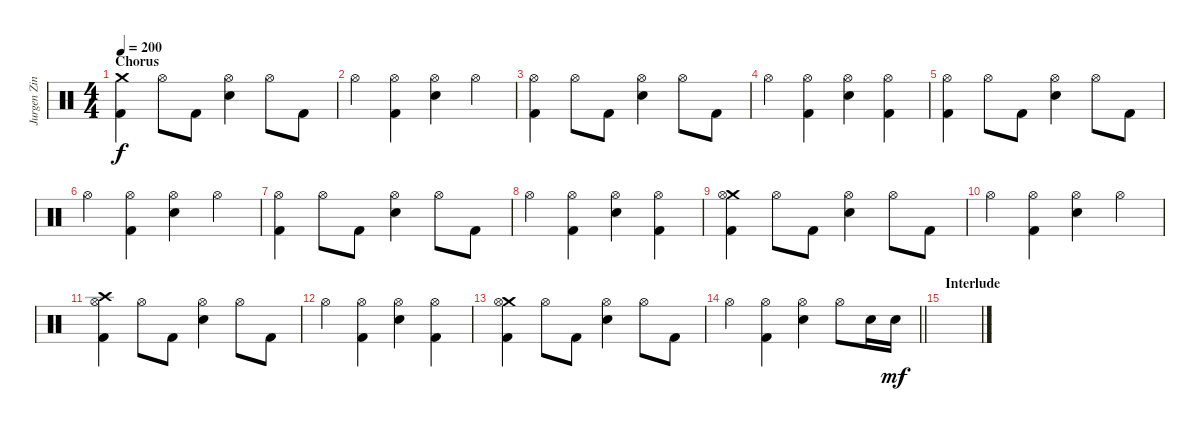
\track ("Jurgen Zink" "Jurgen Zin") {instrument percussion}
\staff {score}
\articulation defaults
\ts (4 4)
\section ("" "Chorus")
\tempo 200
\clef neutral
\ks c
("Crash medium (hit)" "Kick (hit) 2").4{dy f} "Hi-Hat (open)".8 "Kick (hit) 2".8 ("Hi-Hat (open)" "Electric Snare (hit)").4 "Hi-Hat (open)".8 "Kick (hit) 2".8 |
"Hi-Hat (open)".4 ("Hi-Hat (open)" "Kick (hit) 2").4 ("Hi-Hat (open)" "Electric Snare (hit)").4 "Hi-Hat (open)".4 |
("Hi-Hat (open)" "Kick (hit) 2").4 "Hi-Hat (open)".8 "Kick (hit) 2".8 ("Hi-Hat (open)" "Electric Snare (hit)").4 "Hi-Hat (open)".8 "Kick (hit) 2".8 |
"Hi-Hat (open)".4 ("Hi-Hat (open)" "Kick (hit) 2").4 ("Hi-Hat (open)" "Electric Snare (hit)").4 ("Hi-Hat (open)" "Kick (hit) 2").4 |
("Hi-Hat (open)" "Kick (hit) 2").4 "Hi-Hat (open)".8 "Kick (hit) 2".8 ("Hi-Hat (open)" "Electric Snare (hit)").4 "Hi-Hat (open)".8 "Kick (hit) 2".8 |
"Hi-Hat (open)".4 ("Hi-Hat (open)" "Kick (hit) 2").4 ("Hi-Hat (open)" "Electric Snare (hit)").4 "Hi-Hat (open)".4 |
("Hi-Hat (open)" "Kick (hit) 2").4 "Hi-Hat (open)".8 "Kick (hit) 2".8 ("Hi-Hat (open)" "Electric Snare (hit)").4 "Hi-Hat (open)".8 "Kick (hit) 2".8 |
"Hi-Hat (open)".4 ("Hi-Hat (open)" "Kick (hit) 2").4 ("Hi-Hat (open)" "Electric Snare (hit)").4 ("Hi-Hat (open)" "Kick (hit) 2").4 |
("Crash medium (hit)" "Hi-Hat (open)" "Kick (hit) 2").4 "Hi-Hat (open)".8 "Kick (hit) 2".8 ("Hi-Hat (open)" "Electric Snare (hit)").4 "Hi-Hat (open)".8 "Kick (hit) 2".8 |
"Hi-Hat (open)".4 ("Hi-Hat (open)" "Kick (hit) 2").4 ("Hi-Hat (open)" "Electric Snare (hit)").4 "Hi-Hat (open)".4 |
("Crash high (hit)" "Hi-Hat (open)" "Kick (hit) 2").4 "Hi-Hat (open)".8 "Kick (hit) 2".8 ("Hi-Hat (open)" "Electric Snare (hit)").4 "Hi-Hat (open)".8 "Kick (hit) 2".8 |
"Hi-Hat (open)".4 ("Hi-Hat (open)" "Kick (hit) 2").4 ("Hi-Hat (open)" "Electric Snare (hit)").4 ("Hi-Hat (open)" "Kick (hit) 2").4 |
("Crash medium (hit)" "Hi-Hat (open)" "Kick (hit) 2").4 "Hi-Hat (open)".8 "Kick (hit) 2".8 ("Hi-Hat (open)" "Electric Snare (hit)").4 "Hi-Hat (open)".8 "Kick (hit) 2".8 |
\barLineRight lightlight "Hi-Hat (open)".4
("Hi-Hat (open)" "Kick (hit) 2").4 ("Hi-Hat (open)" "Electric Snare (hit)").4 "Hi-Hat (open)".8 "Electric Snare (hit)".16 "Electric Snare (hit)".16{dy mf} |
\section ("" "Interlude")
